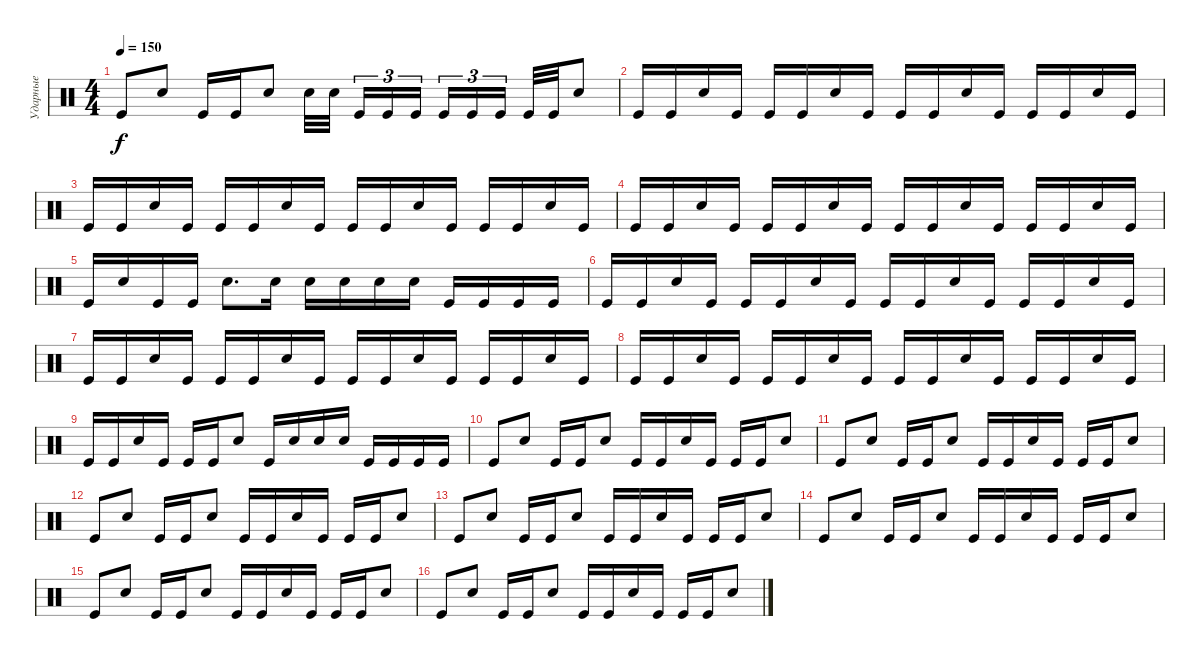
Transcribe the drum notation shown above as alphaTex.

\track ("Ударные" "Ударные") {instrument percussion}
\staff {score}
\articulation defaults
\ts (4 4)
\tempo 150
\clef neutral
\ks c "Kick (hit)".8{dy f} "Snare (hit) 2".8 "Kick (hit)".16 "Kick (hit)".16 "Snare (hit) 2".8 "Snare (hit) 2".32 "Snare (hit) 2".32{beam splitsecondary} "Kick (hit)".16{tu (3 2)} "Kick (hit)".16{tu (3 2)} "Kick (hit)".16{tu (3 2) beam splitsecondary} "Kick (hit)".16{tu (3 2)} "Kick (hit)".16{tu (3 2)} "Kick (hit)".16{tu (3 2) beam splitsecondary} "Kick (hit)".32 "Kick (hit)".32 "Snare (hit) 2".8
|
"Kick (hit)".16 "Kick (hit)".16 "Snare (hit) 2".16 "Kick (hit)".16 "Kick (hit)".16 "Kick (hit)".16 "Snare (hit) 2".16 "Kick (hit)".16 "Kick (hit)".16 "Kick (hit)".16 "Snare (hit) 2".16 "Kick (hit)".16 "Kick (hit)".16 "Kick (hit)".16 "Snare (hit) 2".16 "Kick (hit)".16 |
"Kick (hit)".16 "Kick (hit)".16 "Snare (hit) 2".16 "Kick (hit)".16 "Kick (hit)".16 "Kick (hit)".16 "Snare (hit) 2".16 "Kick (hit)".16 "Kick (hit)".16 "Kick (hit)".16 "Snare (hit) 2".16 "Kick (hit)".16 "Kick (hit)".16 "Kick (hit)".16 "Snare (hit) 2".16 "Kick (hit)".16 |
"Kick (hit)".16 "Kick (hit)".16 "Snare (hit) 2".16 "Kick (hit)".16 "Kick (hit)".16 "Kick (hit)".16 "Snare (hit) 2".16 "Kick (hit)".16 "Kick (hit)".16 "Kick (hit)".16 "Snare (hit) 2".16 "Kick (hit)".16 "Kick (hit)".16 "Kick (hit)".16 "Snare (hit) 2".16 "Kick (hit)".16 |
"Kick (hit)".16 "Snare (hit) 2".16 "Kick (hit)".16 "Kick (hit)".16 "Snare (hit) 2".8{d} "Snare (hit) 2".16 "Snare (hit) 2".16 "Snare (hit) 2".16 "Snare (hit) 2".16 "Snare (hit) 2".16 "Kick (hit)".16 "Kick (hit)".16 "Kick (hit)".16 "Kick (hit)".16 |
"Kick (hit)".16 "Kick (hit)".16 "Snare (hit) 2".16 "Kick (hit)".16 "Kick (hit)".16 "Kick (hit)".16 "Snare (hit) 2".16 "Kick (hit)".16 "Kick (hit)".16 "Kick (hit)".16 "Snare (hit) 2".16 "Kick (hit)".16 "Kick (hit)".16 "Kick (hit)".16 "Snare (hit) 2".16 "Kick (hit)".16 |
"Kick (hit)".16 "Kick (hit)".16 "Snare (hit) 2".16 "Kick (hit)".16 "Kick (hit)".16 "Kick (hit)".16 "Snare (hit) 2".16 "Kick (hit)".16 "Kick (hit)".16 "Kick (hit)".16 "Snare (hit) 2".16 "Kick (hit)".16 "Kick (hit)".16 "Kick (hit)".16 "Snare (hit) 2".16 "Kick (hit)".16 |
"Kick (hit)".16 "Kick (hit)".16 "Snare (hit) 2".16 "Kick (hit)".16 "Kick (hit)".16 "Kick (hit)".16 "Snare (hit) 2".16 "Kick (hit)".16 "Kick (hit)".16 "Kick (hit)".16 "Snare (hit) 2".16 "Kick (hit)".16 "Kick (hit)".16 "Kick (hit)".16 "Snare (hit) 2".16 "Kick (hit)".16 |
"Kick (hit)".16 "Kick (hit)".16 "Snare (hit) 2".16 "Kick (hit)".16 "Kick (hit)".16 "Kick (hit)".16 "Snare (hit) 2".8 "Kick (hit)".16 "Snare (hit) 2".16 "Snare (hit) 2".16 "Snare (hit) 2".16 "Kick (hit)".16 "Kick (hit)".16 "Kick (hit)".16 "Kick (hit)".16 |
"Kick (hit)".8 "Snare (hit) 2".8 "Kick (hit)".16 "Kick (hit)".16 "Snare (hit) 2".8 "Kick (hit)".16 "Kick (hit)".16 "Snare (hit) 2".16 "Kick (hit)".16 "Kick (hit)".16 "Kick (hit)".16 "Snare (hit) 2".8 |
"Kick (hit)".8 "Snare (hit) 2".8 "Kick (hit)".16 "Kick (hit)".16 "Snare (hit) 2".8 "Kick (hit)".16 "Kick (hit)".16 "Snare (hit) 2".16 "Kick (hit)".16 "Kick (hit)".16 "Kick (hit)".16 "Snare (hit) 2".8 |
"Kick (hit)".8 "Snare (hit) 2".8 "Kick (hit)".16 "Kick (hit)".16 "Snare (hit) 2".8 "Kick (hit)".16 "Kick (hit)".16 "Snare (hit) 2".16 "Kick (hit)".16 "Kick (hit)".16 "Kick (hit)".16 "Snare (hit) 2".8 |
"Kick (hit)".8 "Snare (hit) 2".8 "Kick (hit)".16 "Kick (hit)".16 "Snare (hit) 2".8 "Kick (hit)".16 "Kick (hit)".16 "Snare (hit) 2".16 "Kick (hit)".16 "Kick (hit)".16 "Kick (hit)".16 "Snare (hit) 2".8 |
"Kick (hit)".8 "Snare (hit) 2".8 "Kick (hit)".16 "Kick (hit)".16 "Snare (hit) 2".8 "Kick (hit)".16 "Kick (hit)".16 "Snare (hit) 2".16 "Kick (hit)".16 "Kick (hit)".16 "Kick (hit)".16 "Snare (hit) 2".8 |
"Kick (hit)".8 "Snare (hit) 2".8 "Kick (hit)".16 "Kick (hit)".16 "Snare (hit) 2".8 "Kick (hit)".16 "Kick (hit)".16 "Snare (hit) 2".16 "Kick (hit)".16 "Kick (hit)".16 "Kick (hit)".16 "Snare (hit) 2".8 |
"Kick (hit)".8 "Snare (hit) 2".8 "Kick (hit)".16 "Kick (hit)".16 "Snare (hit) 2".8 "Kick (hit)".16 "Kick (hit)".16 "Snare (hit) 2".16 "Kick (hit)".16 "Kick (hit)".16 "Kick (hit)".16 "Snare (hit) 2".8
